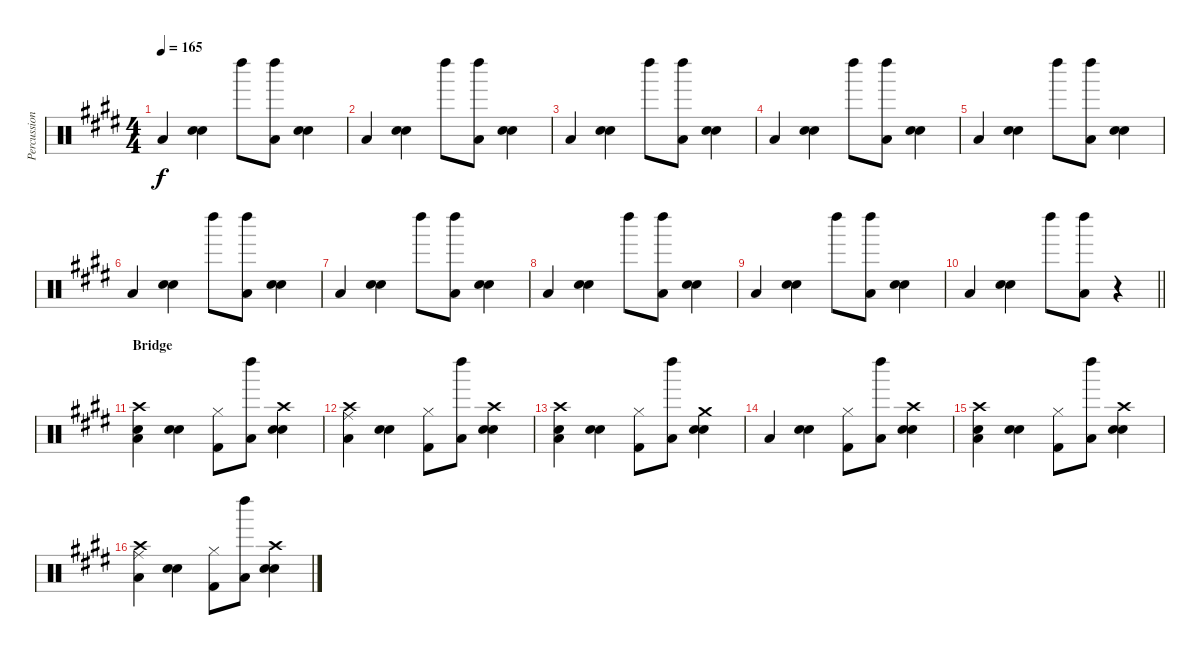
\track ("Percussioni" "Percussion") {instrument percussion}
\staff {score}
\articulation defaults
\ts (4 4)
\tempo 165
\clef neutral
\ks e "Low Floor Tom (hit)".4{dy f}
("Electric Snare (hit)" "Snare (hit) 2").4 "Left Maraca (hit)".8 ("Low Floor Tom (hit)" "Left Maraca (hit)").8 ("Electric Snare (hit)" "Snare (hit) 2").4 |
"Low Floor Tom (hit)".4 ("Electric Snare (hit)" "Snare (hit) 2").4 "Left Maraca (hit)".8 ("Low Floor Tom (hit)" "Left Maraca (hit)").8 ("Electric Snare (hit)" "Snare (hit) 2").4 |
"Low Floor Tom (hit)".4 ("Electric Snare (hit)" "Snare (hit) 2").4 "Left Maraca (hit)".8 ("Low Floor Tom (hit)" "Left Maraca (hit)").8 ("Electric Snare (hit)" "Snare (hit) 2").4 |
"Low Floor Tom (hit)".4 ("Electric Snare (hit)" "Snare (hit) 2").4 "Left Maraca (hit)".8 ("Low Floor Tom (hit)" "Left Maraca (hit)").8 ("Electric Snare (hit)" "Snare (hit) 2").4 |
"Low Floor Tom (hit)".4 ("Electric Snare (hit)" "Snare (hit) 2").4 "Left Maraca (hit)".8 ("Low Floor Tom (hit)" "Left Maraca (hit)").8 ("Electric Snare (hit)" "Snare (hit) 2").4 |
"Low Floor Tom (hit)".4 ("Electric Snare (hit)" "Snare (hit) 2").4 "Left Maraca (hit)".8 ("Low Floor Tom (hit)" "Left Maraca (hit)").8 ("Electric Snare (hit)" "Snare (hit) 2").4 |
"Low Floor Tom (hit)".4 ("Electric Snare (hit)" "Snare (hit) 2").4 "Left Maraca (hit)".8 ("Low Floor Tom (hit)" "Left Maraca (hit)").8 ("Electric Snare (hit)" "Snare (hit) 2").4 |
"Low Floor Tom (hit)".4 ("Electric Snare (hit)" "Snare (hit) 2").4 "Left Maraca (hit)".8 ("Low Floor Tom (hit)" "Left Maraca (hit)").8 ("Electric Snare (hit)" "Snare (hit) 2").4 |
"Low Floor Tom (hit)".4 ("Electric Snare (hit)" "Snare (hit) 2").4 "Left Maraca (hit)".8 ("Low Floor Tom (hit)" "Left Maraca (hit)").8 ("Electric Snare (hit)" "Snare (hit) 2").4 |
\barLineRight lightlight "Low Floor Tom (hit)".4
("Electric Snare (hit)" "Snare (hit) 2").4 "Left Maraca (hit)".8 ("Low Floor Tom (hit)" "Left Maraca (hit)").8 r.4 |
\section ("" "Bridge")
("Low Floor Tom (hit)" "Crash high (hit)" "Snare (hit) 2").4 ("Electric Snare (hit)" "Snare (hit) 2").4 ("Kick (hit) 2" "Hi-Hat (closed)").8 ("Low Floor Tom (hit)" "Left Maraca (hit)").8 ("Electric Snare (hit)" "Snare (hit) 2" "Crash high (hit)").4 |
("Low Floor Tom (hit)" "Crash high (hit)" "Ride (middle)").4 ("Electric Snare (hit)" "Snare (hit) 2").4 ("Kick (hit) 2" "Hi-Hat (closed)").8 ("Low Floor Tom (hit)" "Left Maraca (hit)").8 ("Electric Snare (hit)" "Snare (hit) 2" "Crash high (hit)").4 |
("Low Floor Tom (hit)" "Crash high (hit)" "Snare (hit) 2").4 ("Electric Snare (hit)" "Snare (hit) 2").4 ("Kick (hit) 2" "Hi-Hat (closed)").8 ("Low Floor Tom (hit)" "Left Maraca (hit)").8 ("Electric Snare (hit)" "Snare (hit) 2" "Crash medium (hit)").4 |
"Low Floor Tom (hit)".4 ("Electric Snare (hit)" "Snare (hit) 2").4 ("Kick (hit) 2" "Hi-Hat (closed)").8 ("Low Floor Tom (hit)" "Left Maraca (hit)").8 ("Electric Snare (hit)" "Snare (hit) 2" "Crash high (hit)").4 |
("Low Floor Tom (hit)" "Crash high (hit)" "Snare (hit) 2").4 ("Electric Snare (hit)" "Snare (hit) 2").4 ("Kick (hit) 2" "Hi-Hat (closed)").8 ("Low Floor Tom (hit)" "Left Maraca (hit)").8 ("Electric Snare (hit)" "Snare (hit) 2" "Crash high (hit)").4 |
("Low Floor Tom (hit)" "Crash high (hit)" "Ride (middle)").4 ("Electric Snare (hit)" "Snare (hit) 2").4 ("Kick (hit) 2" "Hi-Hat (closed)").8 ("Low Floor Tom (hit)" "Left Maraca (hit)").8 ("Electric Snare (hit)" "Snare (hit) 2" "Crash high (hit)").4
